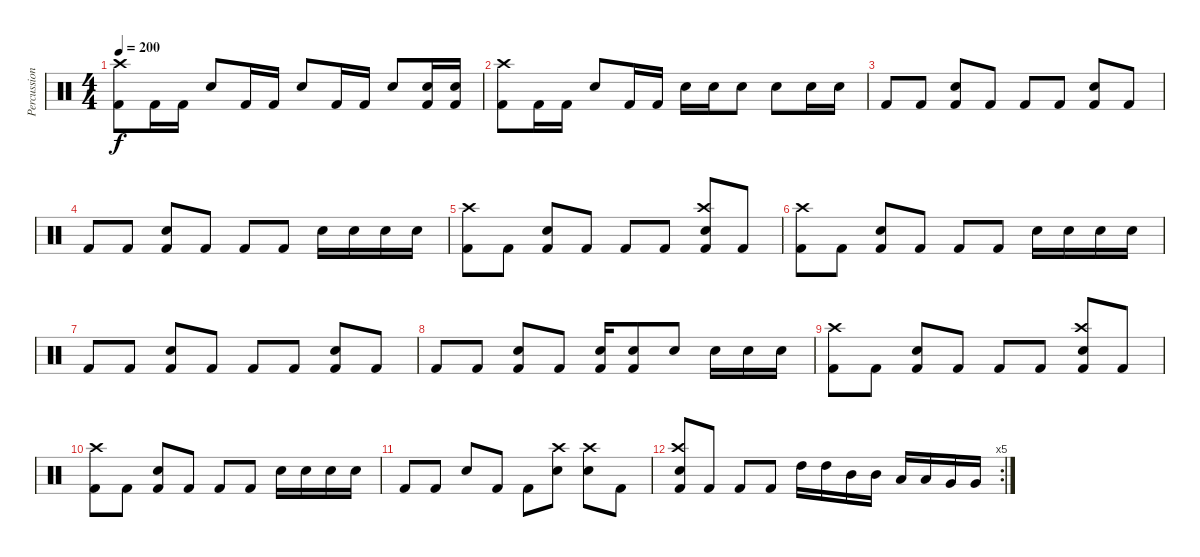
\track ("Percussion" "Percussion") {instrument percussion}
\staff {score}
\articulation defaults
\ts (4 4)
\tempo 200
\clef neutral
\ks c
("Kick (hit) 2" "Crash high (hit)").8{dy f} "Kick (hit) 2".16 "Kick (hit) 2".16 "Electric Snare (hit)".8 "Kick (hit) 2".16 "Kick (hit) 2".16 "Electric Snare (hit)".8 "Kick (hit) 2".16 "Kick (hit) 2".16 "Electric Snare (hit)".8 ("Kick (hit) 2" "Electric Snare (hit)").16 ("Kick (hit) 2" "Electric Snare (hit)").16 |
("Kick (hit) 2" "Crash high (hit)").8 "Kick (hit) 2".16 "Kick (hit) 2".16 "Electric Snare (hit)".8 "Kick (hit) 2".16 "Kick (hit) 2".16 "Electric Snare (hit)".16 "Electric Snare (hit)".16 "Electric Snare (hit)".8 "Electric Snare (hit)".8 "Electric Snare (hit)".16 "Electric Snare (hit)".16 |
"Kick (hit) 2".8 "Kick (hit) 2".8 ("Kick (hit) 2" "Electric Snare (hit)").8 "Kick (hit) 2".8 "Kick (hit) 2".8 "Kick (hit) 2".8 ("Kick (hit) 2" "Electric Snare (hit)").8 "Kick (hit) 2".8 |
"Kick (hit) 2".8 "Kick (hit) 2".8 ("Kick (hit) 2" "Electric Snare (hit)").8 "Kick (hit) 2".8 "Kick (hit) 2".8 "Kick (hit) 2".8 "Electric Snare (hit)".16 "Electric Snare (hit)".16 "Electric Snare (hit)".16 "Electric Snare (hit)".16 |
("Kick (hit) 2" "Crash high (hit)").8 "Kick (hit) 2".8 ("Kick (hit) 2" "Electric Snare (hit)").8 "Kick (hit) 2".8 "Kick (hit) 2".8 "Kick (hit) 2".8 ("Kick (hit) 2" "Electric Snare (hit)" "Crash high (hit)").8 "Kick (hit) 2".8 |
("Kick (hit) 2" "Crash high (hit)").8 "Kick (hit) 2".8 ("Kick (hit) 2" "Electric Snare (hit)").8 "Kick (hit) 2".8 "Kick (hit) 2".8 "Kick (hit) 2".8 "Electric Snare (hit)".16 "Electric Snare (hit)".16 "Electric Snare (hit)".16 "Electric Snare (hit)".16 |
"Kick (hit) 2".8 "Kick (hit) 2".8 ("Kick (hit) 2" "Electric Snare (hit)").8 "Kick (hit) 2".8 "Kick (hit) 2".8 "Kick (hit) 2".8 ("Kick (hit) 2" "Electric Snare (hit)").8 "Kick (hit) 2".8 |
"Kick (hit) 2".8 "Kick (hit) 2".8 ("Kick (hit) 2" "Electric Snare (hit)").8 "Kick (hit) 2".8 ("Kick (hit) 2" "Electric Snare (hit)").16 ("Kick (hit) 2" "Electric Snare (hit)").8 "Electric Snare (hit)".8 "Electric Snare (hit)".16 "Electric Snare (hit)".16 "Electric Snare (hit)".16 |
("Kick (hit) 2" "Crash high (hit)").8 "Kick (hit) 2".8 ("Kick (hit) 2" "Electric Snare (hit)").8 "Kick (hit) 2".8 "Kick (hit) 2".8 "Kick (hit) 2".8 ("Kick (hit) 2" "Electric Snare (hit)" "Crash high (hit)").8 "Kick (hit) 2".8 |
("Kick (hit) 2" "Crash high (hit)").8 "Kick (hit) 2".8 ("Kick (hit) 2" "Electric Snare (hit)").8 "Kick (hit) 2".8 "Kick (hit) 2".8 "Kick (hit) 2".8 "Electric Snare (hit)".16 "Electric Snare (hit)".16 "Electric Snare (hit)".16 "Electric Snare (hit)".16 |
"Kick (hit) 2".8 "Kick (hit) 2".8 "Electric Snare (hit)".8 "Kick (hit) 2".8 "Kick (hit) 2".8 ("Electric Snare (hit)" "Crash high (hit)").8 ("Electric Snare (hit)" "Crash high (hit)").8 "Kick (hit) 2".8 |
\rc 5
("Kick (hit) 2" "Electric Snare (hit)" "Crash high (hit)").8 "Kick (hit) 2".8 "Kick (hit) 2".8 "Kick (hit) 2".8 "High Tom (hit)".16 "High Tom (hit)".16 "Mid Tom (hit)".16 "Mid Tom (hit)".16 "Low Tom (hit)".16 "Low Tom (hit)".16 "Very Low Tom (hit)".16 "Very Low Tom (hit)".16
